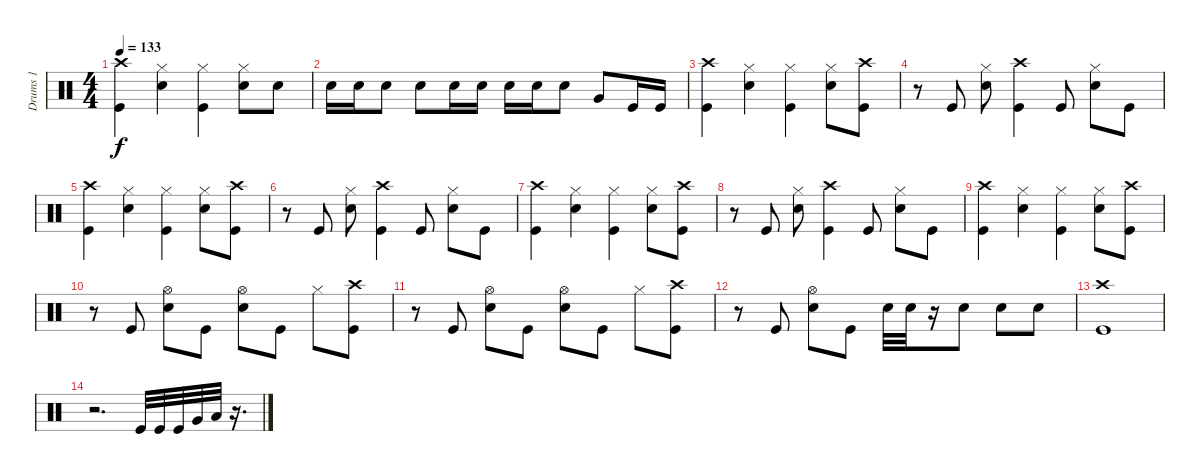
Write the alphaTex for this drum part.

\track ("Drums 1" "Drums 1") {instrument percussion}
\staff {score}
\articulation defaults
\ts (4 4)
\tempo 133
\clef neutral
\ks c
("Crash high (hit)" "Kick (hit)").4{dy f} ("Hi-Hat (closed)" "Snare (hit) 2").4 ("Hi-Hat (closed)" "Kick (hit)").4 ("Hi-Hat (closed)" "Snare (hit) 2").8 "Snare (hit) 2".8 |
"Snare (hit) 2".16 "Snare (hit) 2".16 "Snare (hit) 2".8 "Snare (hit) 2".8 "Snare (hit) 2".16 "Snare (hit) 2".16 "Snare (hit) 2".16 "Snare (hit) 2".16 "Snare (hit) 2".8 "Very Low Tom (hit)".8 "Kick (hit)".16 "Kick (hit)".16 |
("Crash high (hit)" "Kick (hit)").4 ("Hi-Hat (closed)" "Snare (hit) 2").4 ("Hi-Hat (closed)" "Kick (hit)").4 ("Hi-Hat (closed)" "Snare (hit) 2").8 ("Crash high (hit)" "Kick (hit)").8 |
r.8 "Kick (hit)".8 ("Hi-Hat (closed)" "Snare (hit) 2").8 ("Crash high (hit)" "Kick (hit)").4 "Kick (hit)".8 ("Hi-Hat (closed)" "Snare (hit) 2").8 "Kick (hit)".8 |
("Crash high (hit)" "Kick (hit)").4 ("Hi-Hat (closed)" "Snare (hit) 2").4 ("Hi-Hat (closed)" "Kick (hit)").4 ("Hi-Hat (closed)" "Snare (hit) 2").8 ("Crash high (hit)" "Kick (hit)").8 |
r.8 "Kick (hit)".8 ("Hi-Hat (closed)" "Snare (hit) 2").8 ("Crash high (hit)" "Kick (hit)").4 "Kick (hit)".8 ("Hi-Hat (closed)" "Snare (hit) 2").8 "Kick (hit)".8 |
("Crash high (hit)" "Kick (hit)").4 ("Hi-Hat (closed)" "Snare (hit) 2").4 ("Hi-Hat (closed)" "Kick (hit)").4 ("Hi-Hat (closed)" "Snare (hit) 2").8 ("Crash high (hit)" "Kick (hit)").8 |
r.8 "Kick (hit)".8 ("Hi-Hat (closed)" "Snare (hit) 2").8 ("Crash high (hit)" "Kick (hit)").4 "Kick (hit)".8 ("Hi-Hat (closed)" "Snare (hit) 2").8 "Kick (hit)".8 |
("Crash high (hit)" "Kick (hit)").4 ("Hi-Hat (closed)" "Snare (hit) 2").4 ("Hi-Hat (closed)" "Kick (hit)").4 ("Hi-Hat (closed)" "Snare (hit) 2").8 ("Crash high (hit)" "Kick (hit)").8 |
r.8 "Kick (hit)".8 ("Hi-Hat (open)" "Snare (hit) 2").8 "Kick (hit)".8 ("Hi-Hat (open)" "Snare (hit) 2").8 "Kick (hit)".8 "Hi-Hat (closed)".8 ("Crash high (hit)" "Kick (hit)").8 |
r.8 "Kick (hit)".8 ("Hi-Hat (open)" "Snare (hit) 2").8 "Kick (hit)".8 ("Hi-Hat (open)" "Snare (hit) 2").8 "Kick (hit)".8 "Hi-Hat (closed)".8 ("Crash high (hit)" "Kick (hit)").8 |
r.8 "Kick (hit)".8 ("Hi-Hat (open)" "Snare (hit) 2").8 "Kick (hit)".8 "Snare (hit) 2".32 "Snare (hit) 2".32 r.16 "Snare (hit) 2".8 "Snare (hit) 2".8 "Snare (hit) 2".8 |
("Crash high (hit)" "Kick (hit)").1 |
r.2{d} "Kick (hit)".32 "Kick (hit)".32 "Kick (hit)".32 "Very Low Tom (hit)".32 "Low Floor Tom (hit)".32 r.16{d}
